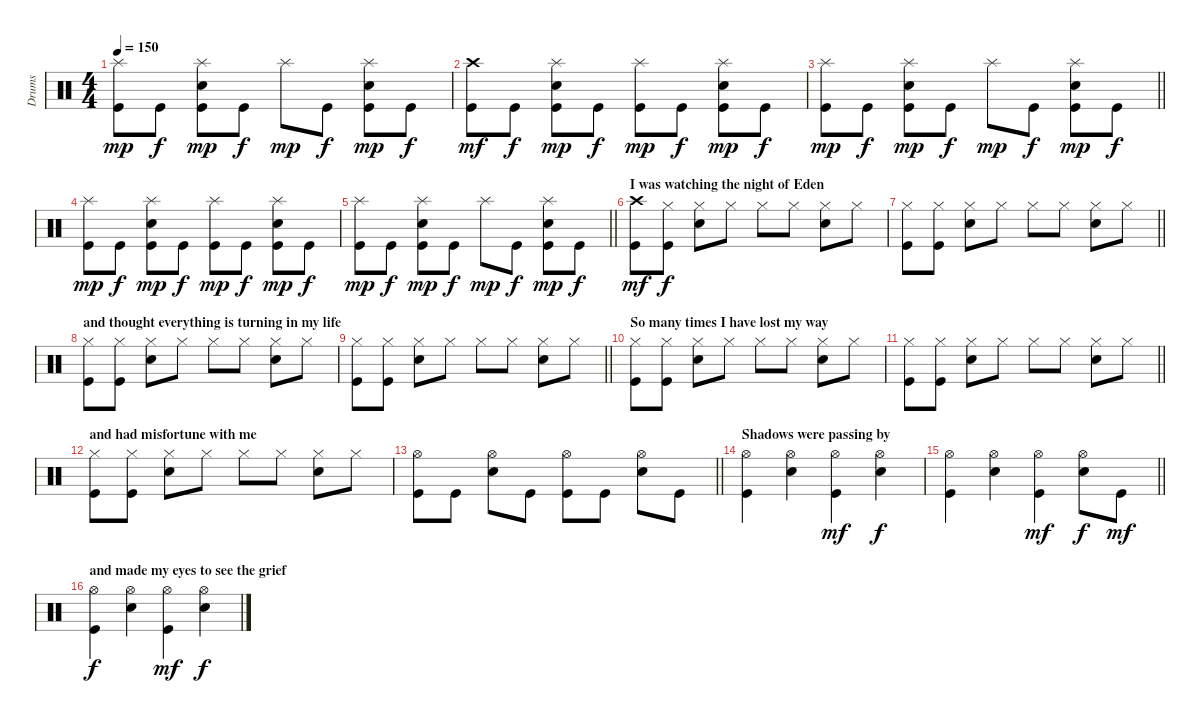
\track ("Drums" "Drums") {instrument percussion}
\staff {score}
\articulation defaults
\ts (4 4)
\tempo 150
\clef neutral
\ks c
("Splash (hit)" "Kick (hit)").8{dy mp} "Kick (hit)".8{dy f} ("Splash (hit)" "Snare (hit) 2" "Kick (hit)").8{dy mp} "Kick (hit)".8{dy f} "Splash (hit)".8{dy mp} "Kick (hit)".8{dy f} ("Splash (hit)" "Snare (hit) 2" "Kick (hit)").8{dy mp} "Kick (hit)".8{dy f} |
("Crash high (hit)" "Kick (hit)").8{dy mf} "Kick (hit)".8{dy f} ("Splash (hit)" "Snare (hit) 2" "Kick (hit)").8{dy mp} "Kick (hit)".8{dy f} ("Splash (hit)" "Kick (hit)").8{dy mp} "Kick (hit)".8{dy f} ("Splash (hit)" "Snare (hit) 2" "Kick (hit)").8{dy mp} "Kick (hit)".8{dy f} |
\barLineRight lightlight
("Splash (hit)" "Kick (hit)").8{dy mp} "Kick (hit)".8{dy f} ("Splash (hit)" "Snare (hit) 2" "Kick (hit)").8{dy mp} "Kick (hit)".8{dy f} "Splash (hit)".8{dy mp} "Kick (hit)".8{dy f} ("Splash (hit)" "Snare (hit) 2" "Kick (hit)").8{dy mp} "Kick (hit)".8{dy f} |
("Splash (hit)" "Kick (hit)").8{dy mp} "Kick (hit)".8{dy f} ("Splash (hit)" "Snare (hit) 2" "Kick (hit)").8{dy mp} "Kick (hit)".8{dy f} ("Splash (hit)" "Kick (hit)").8{dy mp} "Kick (hit)".8{dy f} ("Splash (hit)" "Snare (hit) 2" "Kick (hit)").8{dy mp} "Kick (hit)".8{dy f} |
\barLineRight lightlight
("Splash (hit)" "Kick (hit)").8{dy mp} "Kick (hit)".8{dy f} ("Splash (hit)" "Snare (hit) 2" "Kick (hit)").8{dy mp} "Kick (hit)".8{dy f} "Splash (hit)".8{dy mp} "Kick (hit)".8{dy f} ("Splash (hit)" "Snare (hit) 2" "Kick (hit)").8{dy mp} "Kick (hit)".8{dy f} |
\section ("" "I was watching the night of Eden")
("Crash high (hit)" "Kick (hit)").8{dy mf} ("Hi-Hat (closed)" "Kick (hit)").8{dy f} ("Hi-Hat (closed)" "Snare (hit) 2").8 "Hi-Hat (closed)".8 "Hi-Hat (closed)".8 "Hi-Hat (closed)".8 ("Hi-Hat (closed)" "Snare (hit) 2").8 "Hi-Hat (closed)".8 |
\barLineRight lightlight
("Hi-Hat (closed)" "Kick (hit)").8 ("Hi-Hat (closed)" "Kick (hit)").8 ("Hi-Hat (closed)" "Snare (hit) 2").8 "Hi-Hat (closed)".8 "Hi-Hat (closed)".8 "Hi-Hat (closed)".8 ("Hi-Hat (closed)" "Snare (hit) 2").8 "Hi-Hat (closed)".8 |
\section ("" "and thought everything is turning in my life")
("Hi-Hat (closed)" "Kick (hit)").8 ("Hi-Hat (closed)" "Kick (hit)").8 ("Hi-Hat (closed)" "Snare (hit) 2").8 "Hi-Hat (closed)".8 "Hi-Hat (closed)".8 "Hi-Hat (closed)".8 ("Hi-Hat (closed)" "Snare (hit) 2").8 "Hi-Hat (closed)".8 |
\barLineRight lightlight
("Hi-Hat (closed)" "Kick (hit)").8 ("Hi-Hat (closed)" "Kick (hit)").8 ("Hi-Hat (closed)" "Snare (hit) 2").8 "Hi-Hat (closed)".8 "Hi-Hat (closed)".8 "Hi-Hat (closed)".8 ("Hi-Hat (closed)" "Snare (hit) 2").8 "Hi-Hat (closed)".8 |
\section ("" "So many times I have lost my way ")
("Hi-Hat (closed)" "Kick (hit)").8 ("Hi-Hat (closed)" "Kick (hit)").8 ("Hi-Hat (closed)" "Snare (hit) 2").8 "Hi-Hat (closed)".8 "Hi-Hat (closed)".8 "Hi-Hat (closed)".8 ("Hi-Hat (closed)" "Snare (hit) 2").8 "Hi-Hat (closed)".8 |
\barLineRight lightlight
("Hi-Hat (closed)" "Kick (hit)").8 ("Hi-Hat (closed)" "Kick (hit)").8 ("Hi-Hat (closed)" "Snare (hit) 2").8 "Hi-Hat (closed)".8 "Hi-Hat (closed)".8 "Hi-Hat (closed)".8 ("Hi-Hat (closed)" "Snare (hit) 2").8 "Hi-Hat (closed)".8 |
\section ("" "and had misfortune with me")
("Hi-Hat (closed)" "Kick (hit)").8 ("Hi-Hat (closed)" "Kick (hit)").8 ("Hi-Hat (closed)" "Snare (hit) 2").8 "Hi-Hat (closed)".8 "Hi-Hat (closed)".8 "Hi-Hat (closed)".8 ("Hi-Hat (closed)" "Snare (hit) 2").8 "Hi-Hat (closed)".8 |
\barLineRight lightlight
("Hi-Hat (open)" "Kick (hit)").8 "Kick (hit)".8 ("Hi-Hat (open)" "Snare (hit) 2").8 "Kick (hit)".8 ("Hi-Hat (open)" "Kick (hit)").8 "Kick (hit)".8 ("Hi-Hat (open)" "Snare (hit) 2").8 "Kick (hit)".8 |
\section ("" "Shadows were passing by")
("Hi-Hat (open)" "Kick (hit)").4 ("Hi-Hat (open)" "Snare (hit) 2").4 ("Hi-Hat (open)" "Kick (hit)").4{dy mf} ("Hi-Hat (open)" "Snare (hit) 2").4{dy f} |
\barLineRight lightlight
("Hi-Hat (open)" "Kick (hit)").4 ("Hi-Hat (open)" "Snare (hit) 2").4 ("Hi-Hat (open)" "Kick (hit)").4{dy mf} ("Hi-Hat (open)" "Snare (hit) 2").8{dy f} "Kick (hit)".8{dy mf} |
\section ("" "and made my eyes to see the grief")
("Hi-Hat (open)" "Kick (hit)").4{dy f} ("Hi-Hat (open)" "Snare (hit) 2").4 ("Hi-Hat (open)" "Kick (hit)").4{dy mf} ("Hi-Hat (open)" "Snare (hit) 2").4{dy f}
